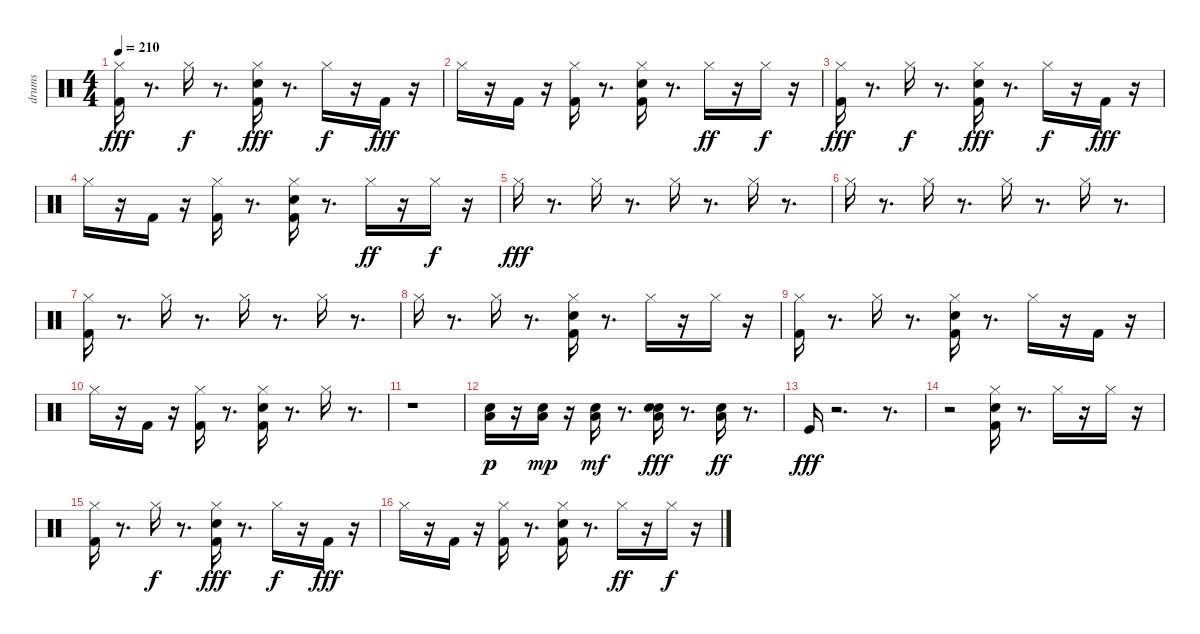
\track ("drums" "drums") {instrument percussion}
\staff {score}
\articulation defaults
\ts (4 4)
\tempo 210
\clef neutral
\ks c
("Hi-Hat (closed)" "Kick (hit) 2").16{dy fff} r.8{d} "Hi-Hat (closed)".16{dy f} r.8{d} ("Electric Snare (hit)" "Hi-Hat (closed)" "Kick (hit) 2").16{dy fff} r.8{d} "Hi-Hat (closed)".16{dy f} r.16 "Kick (hit) 2".16{dy fff} r.16 |
"Hi-Hat (closed)".16 r.16 "Kick (hit) 2".16 r.16 ("Hi-Hat (closed)" "Kick (hit) 2").16 r.8{d} ("Electric Snare (hit)" "Hi-Hat (closed)" "Kick (hit) 2").16 r.8{d} "Hi-Hat (closed)".16{dy ff} r.16 "Hi-Hat (closed)".16{dy f} r.16 |
("Hi-Hat (closed)" "Kick (hit) 2").16{dy fff} r.8{d} "Hi-Hat (closed)".16{dy f} r.8{d} ("Electric Snare (hit)" "Hi-Hat (closed)" "Kick (hit) 2").16{dy fff} r.8{d} "Hi-Hat (closed)".16{dy f} r.16 "Kick (hit) 2".16{dy fff} r.16 |
"Hi-Hat (closed)".16 r.16 "Kick (hit) 2".16 r.16 ("Hi-Hat (closed)" "Kick (hit) 2").16 r.8{d} ("Electric Snare (hit)" "Hi-Hat (closed)" "Kick (hit) 2").16 r.8{d} "Hi-Hat (closed)".16{dy ff} r.16 "Hi-Hat (closed)".16{dy f} r.16 |
"Hi-Hat (closed)".16{dy fff} r.8{d} "Hi-Hat (closed)".16 r.8{d} "Hi-Hat (closed)".16 r.8{d} "Hi-Hat (closed)".16 r.8{d} |
"Hi-Hat (closed)".16 r.8{d} "Hi-Hat (closed)".16 r.8{d} "Hi-Hat (closed)".16 r.8{d} "Hi-Hat (closed)".16 r.8{d} |
("Hi-Hat (closed)" "Kick (hit) 2").16 r.8{d} "Hi-Hat (closed)".16 r.8{d} "Hi-Hat (closed)".16 r.8{d} "Hi-Hat (closed)".16 r.8{d} |
"Hi-Hat (closed)".16 r.8{d} "Hi-Hat (closed)".16 r.8{d} ("Hi-Hat (closed)" "Electric Snare (hit)" "Kick (hit) 2").16 r.8{d} "Hi-Hat (closed)".16 r.16 "Hi-Hat (closed)".16 r.16 |
("Hi-Hat (closed)" "Kick (hit) 2").16 r.8{d} "Hi-Hat (closed)".16 r.8{d} ("Hi-Hat (closed)" "Electric Snare (hit)" "Kick (hit) 2").16 r.8{d} "Hi-Hat (closed)".16 r.16 "Kick (hit) 2".16 r.16 |
"Hi-Hat (closed)".16 r.16 "Kick (hit) 2".16 r.16 ("Hi-Hat (closed)" "Kick (hit) 2").16 r.8{d} ("Hi-Hat (closed)" "Electric Snare (hit)" "Kick (hit) 2").16 r.8{d} "Hi-Hat (closed)".16 r.8{d} |
r.1 |
("Low Floor Tom (hit)" "Snare (hit) 2").16{dy p} r.16 ("Low Floor Tom (hit)" "Snare (hit) 2").16{dy mp} r.16 ("Low Floor Tom (hit)" "Snare (hit) 2").16{dy mf} r.8{d} ("Low Floor Tom (hit)" "Snare (hit) 2" "Electric Snare (hit)").16{dy fff} r.8{d} ("Low Floor Tom (hit)" "Snare (hit) 2").16{dy ff} r.8{d} |
"Kick (hit)".16{dy fff} r.2{d} r.8{d} |
r.2 ("Electric Snare (hit)" "Hi-Hat (closed)" "Kick (hit) 2").16 r.8{d} "Hi-Hat (closed)".16 r.16 "Hi-Hat (closed)".16 r.16 |
("Hi-Hat (closed)" "Kick (hit) 2").16 r.8{d} "Hi-Hat (closed)".16{dy f} r.8{d} ("Electric Snare (hit)" "Hi-Hat (closed)" "Kick (hit) 2").16{dy fff} r.8{d} "Hi-Hat (closed)".16{dy f} r.16 "Kick (hit) 2".16{dy fff} r.16 |
"Hi-Hat (closed)".16 r.16 "Kick (hit) 2".16 r.16 ("Hi-Hat (closed)" "Kick (hit) 2").16 r.8{d} ("Electric Snare (hit)" "Hi-Hat (closed)" "Kick (hit) 2").16 r.8{d} "Hi-Hat (closed)".16{dy ff} r.16 "Hi-Hat (closed)".16{dy f} r.16
